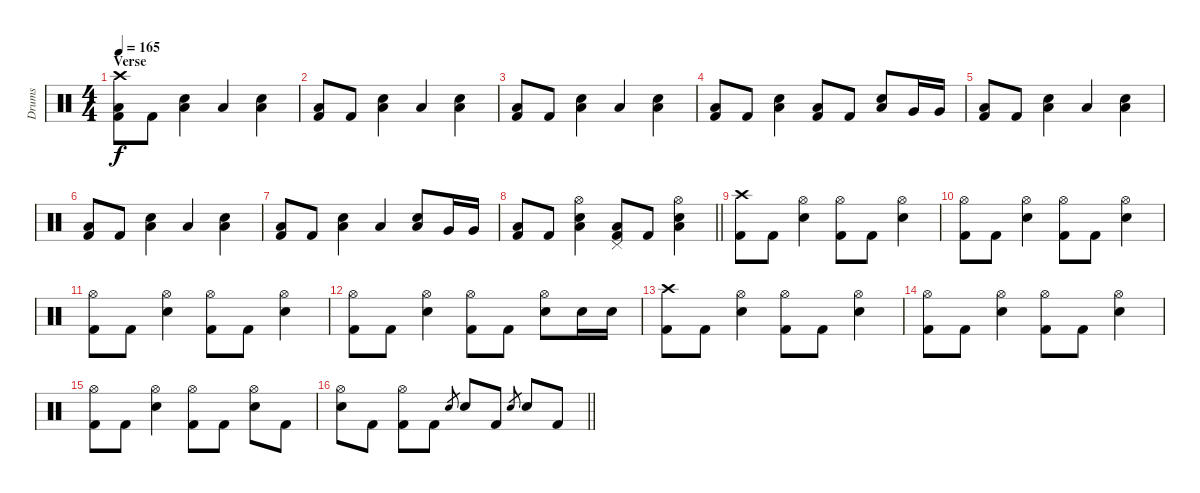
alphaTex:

\track ("Drums" "Drums") {instrument percussion}
\staff {score}
\articulation defaults
\ts (4 4)
\section ("" "Verse")
\tempo 165
\clef neutral
\ks c
("Crash high (hit)" "Low Floor Tom (hit)" "Kick (hit) 2").8{dy f} "Kick (hit) 2".8 ("Electric Snare (hit)" "Low Floor Tom (hit)").4 "Low Floor Tom (hit)".4 ("Electric Snare (hit)" "Low Floor Tom (hit)").4 |
("Low Floor Tom (hit)" "Kick (hit) 2").8 "Kick (hit) 2".8 ("Electric Snare (hit)" "Low Floor Tom (hit)").4 "Low Floor Tom (hit)".4 ("Electric Snare (hit)" "Low Floor Tom (hit)").4 |
("Low Floor Tom (hit)" "Kick (hit) 2").8 "Kick (hit) 2".8 ("Electric Snare (hit)" "Low Floor Tom (hit)").4 "Low Floor Tom (hit)".4 ("Electric Snare (hit)" "Low Floor Tom (hit)").4 |
("Low Floor Tom (hit)" "Kick (hit) 2").8 "Kick (hit) 2".8 ("Electric Snare (hit)" "Low Floor Tom (hit)").4 ("Low Floor Tom (hit)" "Kick (hit) 2").8 "Kick (hit) 2".8 ("Electric Snare (hit)" "Low Floor Tom (hit)").8 "Very Low Tom (hit)".16 "Very Low Tom (hit)".16 |
("Low Floor Tom (hit)" "Kick (hit) 2").8 "Kick (hit) 2".8 ("Electric Snare (hit)" "Low Floor Tom (hit)").4 "Low Floor Tom (hit)".4 ("Electric Snare (hit)" "Low Floor Tom (hit)").4 |
("Low Floor Tom (hit)" "Kick (hit) 2").8 "Kick (hit) 2".8 ("Electric Snare (hit)" "Low Floor Tom (hit)").4 "Low Floor Tom (hit)".4 ("Electric Snare (hit)" "Low Floor Tom (hit)").4 |
("Low Floor Tom (hit)" "Kick (hit) 2").8 "Kick (hit) 2".8 ("Electric Snare (hit)" "Low Floor Tom (hit)").4 "Low Floor Tom (hit)".4 ("Electric Snare (hit)" "Low Floor Tom (hit)").8 "Very Low Tom (hit)".16 "Very Low Tom (hit)".16 |
\barLineRight lightlight
("Low Floor Tom (hit)" "Kick (hit) 2").8 "Kick (hit) 2".8 ("Hi-Hat (open)" "Electric Snare (hit)" "Low Floor Tom (hit)").4 ("Pedal Hi-Hat (hit)" "Low Floor Tom (hit)" "Kick (hit) 2").8 "Kick (hit) 2".8 ("Hi-Hat (open)" "Electric Snare (hit)" "Low Floor Tom (hit)").4 |
("Crash high (hit)" "Kick (hit) 2").8 "Kick (hit) 2".8 ("Hi-Hat (open)" "Electric Snare (hit)").4 ("Hi-Hat (open)" "Kick (hit) 2").8 "Kick (hit) 2".8 ("Hi-Hat (open)" "Electric Snare (hit)").4 |
("Hi-Hat (open)" "Kick (hit) 2").8 "Kick (hit) 2".8 ("Hi-Hat (open)" "Electric Snare (hit)").4 ("Hi-Hat (open)" "Kick (hit) 2").8 "Kick (hit) 2".8 ("Hi-Hat (open)" "Electric Snare (hit)").4 |
("Hi-Hat (open)" "Kick (hit) 2").8 "Kick (hit) 2".8 ("Hi-Hat (open)" "Electric Snare (hit)").4 ("Hi-Hat (open)" "Kick (hit) 2").8 "Kick (hit) 2".8 ("Hi-Hat (open)" "Electric Snare (hit)").4 |
("Hi-Hat (open)" "Kick (hit) 2").8 "Kick (hit) 2".8 ("Hi-Hat (open)" "Electric Snare (hit)").4 ("Hi-Hat (open)" "Kick (hit) 2").8 "Kick (hit) 2".8 ("Hi-Hat (open)" "Electric Snare (hit)").8 "Electric Snare (hit)".16 "Electric Snare (hit)".16 |
("Crash high (hit)" "Kick (hit) 2").8 "Kick (hit) 2".8 ("Hi-Hat (open)" "Electric Snare (hit)").4 ("Hi-Hat (open)" "Kick (hit) 2").8 "Kick (hit) 2".8 ("Hi-Hat (open)" "Electric Snare (hit)").4 |
("Hi-Hat (open)" "Kick (hit) 2").8 "Kick (hit) 2".8 ("Hi-Hat (open)" "Electric Snare (hit)").4 ("Hi-Hat (open)" "Kick (hit) 2").8 "Kick (hit) 2".8 ("Hi-Hat (open)" "Electric Snare (hit)").4 |
("Hi-Hat (open)" "Kick (hit) 2").8 "Kick (hit) 2".8 ("Hi-Hat (open)" "Electric Snare (hit)").4 ("Hi-Hat (open)" "Kick (hit) 2").8 "Kick (hit) 2".8 ("Hi-Hat (open)" "Electric Snare (hit)").8 "Kick (hit) 2".8 |
\barLineRight lightlight
("Hi-Hat (open)" "Electric Snare (hit)").8 "Kick (hit) 2".8 ("Hi-Hat (open)" "Kick (hit) 2").8 "Kick (hit) 2".8 "Electric Snare (hit)".8{gr} "Electric Snare (hit)".8 "Kick (hit) 2".8 "Electric Snare (hit)".8{gr} "Electric Snare (hit)".8 "Kick (hit) 2".8
